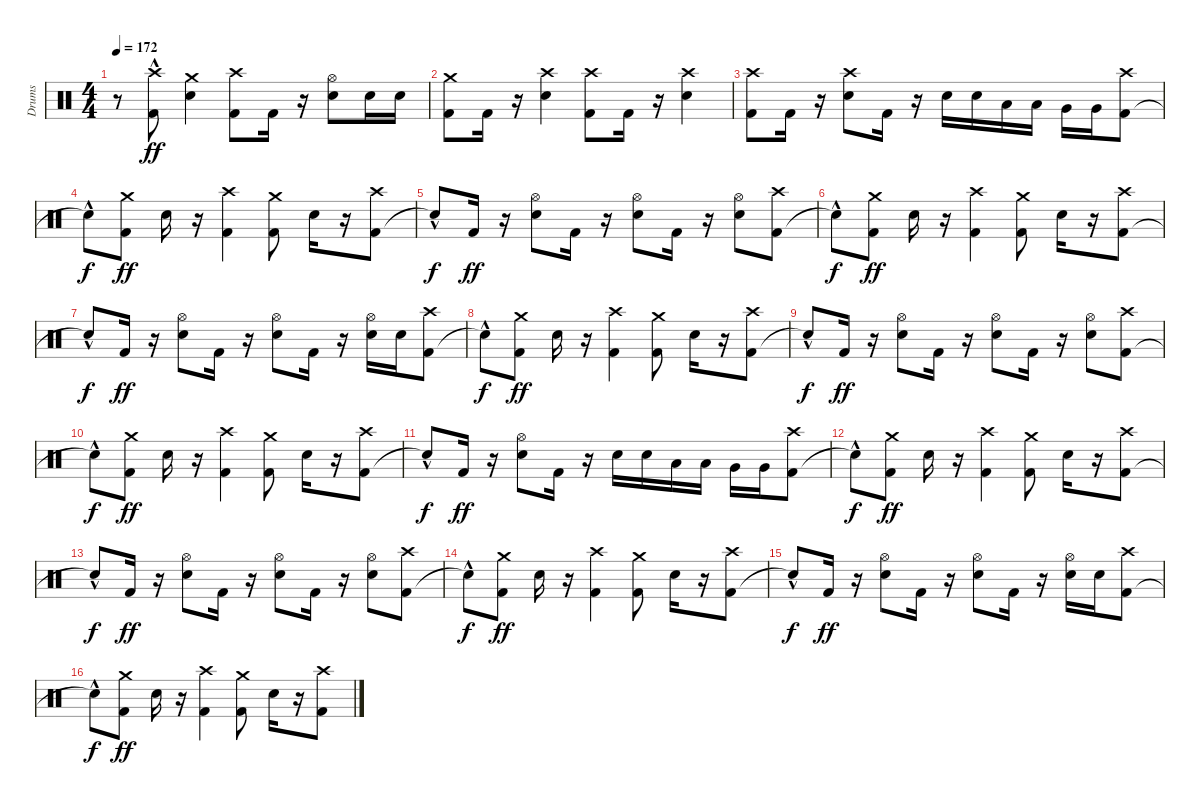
\track ("Drums" "Drums") {instrument percussion}
\staff {score}
\articulation defaults
\ts (4 4)
\tempo 172
\clef neutral
\ks c
r.8{dy ff} ("Kick (hit) 2" "Crash high (hit)"{hac}).8 ("Electric Snare (hit)" "Crash medium (hit)").4 ("Kick (hit) 2" "Crash high (hit)").8 "Kick (hit) 2".16 r.16 ("Electric Snare (hit)" "Hi-Hat (open)").8 "Electric Snare (hit)".16 "Electric Snare (hit)".16 |
("Kick (hit) 2" "Crash medium (hit)").8 "Kick (hit) 2".16 r.16 ("Electric Snare (hit)" "Crash high (hit)").4 ("Kick (hit) 2" "Crash high (hit)").8 "Kick (hit) 2".16 r.16 ("Electric Snare (hit)" "Crash high (hit)").4 |
("Kick (hit) 2" "Crash high (hit)").8 "Kick (hit) 2".16 r.16 ("Electric Snare (hit)" "Crash high (hit)").8 "Kick (hit) 2".16 r.16 "Electric Snare (hit)".16 "Electric Snare (hit)".16 "Low Tom (hit)".16 "Low Tom (hit)".16 "Very Low Tom (hit)".16 "Very Low Tom (hit)".16 ("Kick (hit) 2" "Crash high (hit)").8 |
"Snare (hit)"{hac t}.8{dy f} ("Kick (hit) 2" "Crash medium (hit)").8{dy ff} "Electric Snare (hit)".16 r.16 ("Kick (hit) 2" "Crash high (hit)").4 ("Kick (hit) 2" "Crash medium (hit)").8 "Electric Snare (hit)".16 r.16 ("Kick (hit) 2" "Crash high (hit)").8 |
"Snare (hit)"{hac t}.8{dy f} "Kick (hit) 2".16{dy ff} r.16 ("Electric Snare (hit)" "Hi-Hat (open)").8 "Kick (hit) 2".16 r.16 ("Electric Snare (hit)" "Hi-Hat (open)").8 "Kick (hit) 2".16 r.16 ("Electric Snare (hit)" "Hi-Hat (open)").8 ("Kick (hit) 2" "Crash high (hit)").8 |
"Snare (hit)"{hac t}.8{dy f} ("Kick (hit) 2" "Crash medium (hit)").8{dy ff} "Electric Snare (hit)".16 r.16 ("Kick (hit) 2" "Crash high (hit)").4 ("Kick (hit) 2" "Crash medium (hit)").8 "Electric Snare (hit)".16 r.16 ("Kick (hit) 2" "Crash high (hit)").8 |
"Snare (hit)"{hac t}.8{dy f} "Kick (hit) 2".16{dy ff} r.16 ("Electric Snare (hit)" "Hi-Hat (open)").8 "Kick (hit) 2".16 r.16 ("Electric Snare (hit)" "Hi-Hat (open)").8 "Kick (hit) 2".16 r.16 ("Electric Snare (hit)" "Hi-Hat (open)").16 "Electric Snare (hit)".16 ("Kick (hit) 2" "Crash high (hit)").8 |
"Snare (hit)"{hac t}.8{dy f} ("Kick (hit) 2" "Crash medium (hit)").8{dy ff} "Electric Snare (hit)".16 r.16 ("Kick (hit) 2" "Crash high (hit)").4 ("Kick (hit) 2" "Crash medium (hit)").8 "Electric Snare (hit)".16 r.16 ("Kick (hit) 2" "Crash high (hit)").8 |
"Snare (hit)"{hac t}.8{dy f} "Kick (hit) 2".16{dy ff} r.16 ("Electric Snare (hit)" "Hi-Hat (open)").8 "Kick (hit) 2".16 r.16 ("Electric Snare (hit)" "Hi-Hat (open)").8 "Kick (hit) 2".16 r.16 ("Electric Snare (hit)" "Hi-Hat (open)").8 ("Kick (hit) 2" "Crash high (hit)").8 |
"Snare (hit)"{hac t}.8{dy f} ("Kick (hit) 2" "Crash medium (hit)").8{dy ff} "Electric Snare (hit)".16 r.16 ("Kick (hit) 2" "Crash high (hit)").4 ("Kick (hit) 2" "Crash medium (hit)").8 "Electric Snare (hit)".16 r.16 ("Kick (hit) 2" "Crash high (hit)").8 |
"Snare (hit)"{hac t}.8{dy f} "Kick (hit) 2".16{dy ff} r.16 ("Electric Snare (hit)" "Hi-Hat (open)").8 "Kick (hit) 2".16 r.16 "Electric Snare (hit)".16 "Electric Snare (hit)".16 "Low Tom (hit)".16 "Low Tom (hit)".16 "Very Low Tom (hit)".16 "Very Low Tom (hit)".16 ("Kick (hit) 2" "Crash high (hit)").8 |
"Snare (hit)"{hac t}.8{dy f} ("Kick (hit) 2" "Crash medium (hit)").8{dy ff} "Electric Snare (hit)".16 r.16 ("Kick (hit) 2" "Crash high (hit)").4 ("Kick (hit) 2" "Crash medium (hit)").8 "Electric Snare (hit)".16 r.16 ("Kick (hit) 2" "Crash high (hit)").8 |
"Snare (hit)"{hac t}.8{dy f} "Kick (hit) 2".16{dy ff} r.16 ("Electric Snare (hit)" "Hi-Hat (open)").8 "Kick (hit) 2".16 r.16 ("Electric Snare (hit)" "Hi-Hat (open)").8 "Kick (hit) 2".16 r.16 ("Electric Snare (hit)" "Hi-Hat (open)").8 ("Kick (hit) 2" "Crash high (hit)").8 |
"Snare (hit)"{hac t}.8{dy f} ("Kick (hit) 2" "Crash medium (hit)").8{dy ff} "Electric Snare (hit)".16 r.16 ("Kick (hit) 2" "Crash high (hit)").4 ("Kick (hit) 2" "Crash medium (hit)").8 "Electric Snare (hit)".16 r.16 ("Kick (hit) 2" "Crash high (hit)").8 |
"Snare (hit)"{hac t}.8{dy f} "Kick (hit) 2".16{dy ff} r.16 ("Electric Snare (hit)" "Hi-Hat (open)").8 "Kick (hit) 2".16 r.16 ("Electric Snare (hit)" "Hi-Hat (open)").8 "Kick (hit) 2".16 r.16 ("Electric Snare (hit)" "Hi-Hat (open)").16 "Electric Snare (hit)".16 ("Kick (hit) 2" "Crash high (hit)").8 |
"Snare (hit)"{hac t}.8{dy f} ("Kick (hit) 2" "Crash medium (hit)").8{dy ff} "Electric Snare (hit)".16 r.16 ("Kick (hit) 2" "Crash high (hit)").4 ("Kick (hit) 2" "Crash medium (hit)").8 "Electric Snare (hit)".16 r.16 ("Kick (hit) 2" "Crash high (hit)").8
